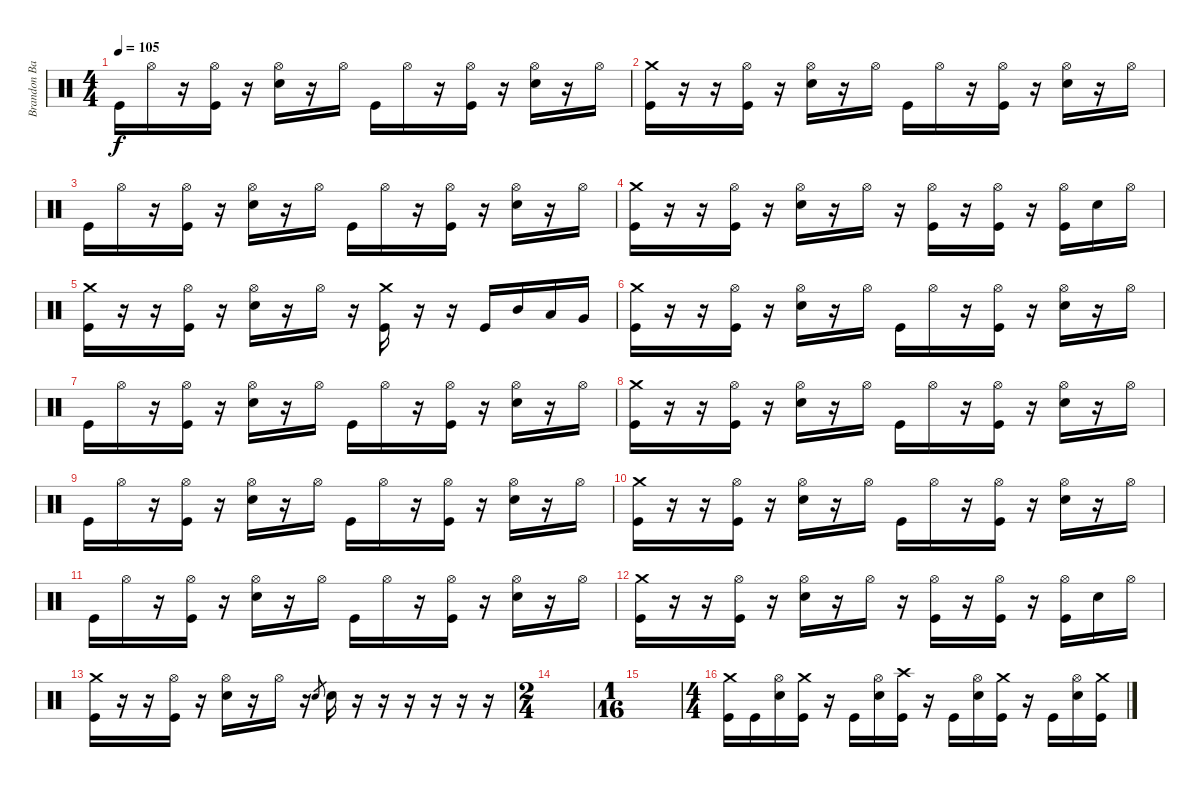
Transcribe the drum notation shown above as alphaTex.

\track ("Brandon Barnes" "Brandon Ba") {instrument percussion}
\staff {score}
\articulation defaults
\ts (4 4)
\tempo 105
\clef neutral
\ks c "Kick (hit)".16{dy f} "Hi-Hat (open)".16
r.16 ("Hi-Hat (open)" "Kick (hit)").16 r.16 ("Hi-Hat (open)" "Electric Snare (hit)").16 r.16 "Hi-Hat (open)".16 "Kick (hit)".16 "Hi-Hat (open)".16 r.16 ("Hi-Hat (open)" "Kick (hit)").16 r.16 ("Hi-Hat (open)" "Electric Snare (hit)").16 r.16 "Hi-Hat (open)".16 |
("Crash medium (hit)" "Kick (hit)").16 r.16 r.16 ("Hi-Hat (open)" "Kick (hit)").16 r.16 ("Hi-Hat (open)" "Electric Snare (hit)").16 r.16 "Hi-Hat (open)".16 "Kick (hit)".16 "Hi-Hat (open)".16 r.16 ("Hi-Hat (open)" "Kick (hit)").16 r.16 ("Hi-Hat (open)" "Electric Snare (hit)").16 r.16 "Hi-Hat (open)".16 |
"Kick (hit)".16 "Hi-Hat (open)".16 r.16 ("Hi-Hat (open)" "Kick (hit)").16 r.16 ("Hi-Hat (open)" "Electric Snare (hit)").16 r.16 "Hi-Hat (open)".16 "Kick (hit)".16 "Hi-Hat (open)".16 r.16 ("Hi-Hat (open)" "Kick (hit)").16 r.16 ("Hi-Hat (open)" "Electric Snare (hit)").16 r.16 "Hi-Hat (open)".16 |
("Crash medium (hit)" "Kick (hit)").16 r.16 r.16 ("Hi-Hat (open)" "Kick (hit)").16 r.16 ("Hi-Hat (open)" "Electric Snare (hit)").16 r.16 "Hi-Hat (open)".16 r.16 ("Hi-Hat (open)" "Kick (hit)").16 r.16 ("Hi-Hat (open)" "Kick (hit)").16 r.16 ("Hi-Hat (open)" "Kick (hit)").16 "Electric Snare (hit)".16 "Hi-Hat (open)".16 |
("Crash medium (hit)" "Kick (hit)").16 r.16 r.16 ("Hi-Hat (open)" "Kick (hit)").16 r.16 ("Hi-Hat (open)" "Electric Snare (hit)").16 r.16 "Hi-Hat (open)".16 r.16 ("Crash medium (hit)" "Kick (hit)").16 r.16 r.16 "Kick (hit)".16 "Mid Tom (hit)".16 "Low Tom (hit)".16 "Very Low Tom (hit)".16 |
("Crash medium (hit)" "Kick (hit)").16 r.16 r.16 ("Hi-Hat (open)" "Kick (hit)").16 r.16 ("Hi-Hat (open)" "Electric Snare (hit)").16 r.16 "Hi-Hat (open)".16 "Kick (hit)".16 "Hi-Hat (open)".16 r.16 ("Hi-Hat (open)" "Kick (hit)").16 r.16 ("Hi-Hat (open)" "Electric Snare (hit)").16 r.16 "Hi-Hat (open)".16 |
"Kick (hit)".16 "Hi-Hat (open)".16 r.16 ("Hi-Hat (open)" "Kick (hit)").16 r.16 ("Hi-Hat (open)" "Electric Snare (hit)").16 r.16 "Hi-Hat (open)".16 "Kick (hit)".16 "Hi-Hat (open)".16 r.16 ("Hi-Hat (open)" "Kick (hit)").16 r.16 ("Hi-Hat (open)" "Electric Snare (hit)").16 r.16 "Hi-Hat (open)".16 |
("Crash medium (hit)" "Kick (hit)").16 r.16 r.16 ("Hi-Hat (open)" "Kick (hit)").16 r.16 ("Hi-Hat (open)" "Electric Snare (hit)").16 r.16 "Hi-Hat (open)".16 "Kick (hit)".16 "Hi-Hat (open)".16 r.16 ("Hi-Hat (open)" "Kick (hit)").16 r.16 ("Hi-Hat (open)" "Electric Snare (hit)").16 r.16 "Hi-Hat (open)".16 |
"Kick (hit)".16 "Hi-Hat (open)".16 r.16 ("Hi-Hat (open)" "Kick (hit)").16 r.16 ("Hi-Hat (open)" "Electric Snare (hit)").16 r.16 "Hi-Hat (open)".16 "Kick (hit)".16 "Hi-Hat (open)".16 r.16 ("Hi-Hat (open)" "Kick (hit)").16 r.16 ("Hi-Hat (open)" "Electric Snare (hit)").16 r.16 "Hi-Hat (open)".16 |
("Crash medium (hit)" "Kick (hit)").16 r.16 r.16 ("Hi-Hat (open)" "Kick (hit)").16 r.16 ("Hi-Hat (open)" "Electric Snare (hit)").16 r.16 "Hi-Hat (open)".16 "Kick (hit)".16 "Hi-Hat (open)".16 r.16 ("Hi-Hat (open)" "Kick (hit)").16 r.16 ("Hi-Hat (open)" "Electric Snare (hit)").16 r.16 "Hi-Hat (open)".16 |
"Kick (hit)".16 "Hi-Hat (open)".16 r.16 ("Hi-Hat (open)" "Kick (hit)").16 r.16 ("Hi-Hat (open)" "Electric Snare (hit)").16 r.16 "Hi-Hat (open)".16 "Kick (hit)".16 "Hi-Hat (open)".16 r.16 ("Hi-Hat (open)" "Kick (hit)").16 r.16 ("Hi-Hat (open)" "Electric Snare (hit)").16 r.16 "Hi-Hat (open)".16 |
("Crash medium (hit)" "Kick (hit)").16 r.16 r.16 ("Hi-Hat (open)" "Kick (hit)").16 r.16 ("Hi-Hat (open)" "Electric Snare (hit)").16 r.16 "Hi-Hat (open)".16 r.16 ("Hi-Hat (open)" "Kick (hit)").16 r.16 ("Hi-Hat (open)" "Kick (hit)").16 r.16 ("Hi-Hat (open)" "Kick (hit)").16 "Electric Snare (hit)".16 "Hi-Hat (open)".16 |
("Crash medium (hit)" "Kick (hit)").16 r.16 r.16 ("Hi-Hat (open)" "Kick (hit)").16 r.16 ("Hi-Hat (open)" "Electric Snare (hit)").16 r.16 "Hi-Hat (open)".16 r.16 "Electric Snare (hit)".8{gr} "Electric Snare (hit)".16 r.16 r.16 r.16 r.16 r.16 r.16 |
\ts (2 4)
|
\ts (1 16)
|
\ts (4 4)
("Crash medium (hit)" "Kick (hit)").16 "Kick (hit)".16 ("Hi-Hat (open)" "Electric Snare (hit)").16 ("Crash medium (hit)" "Kick (hit)").16 r.16 "Kick (hit)".16 ("Hi-Hat (open)" "Electric Snare (hit)").16 ("Crash high (hit)" "Kick (hit)").16 r.16 "Kick (hit)".16 ("Hi-Hat (open)" "Electric Snare (hit)").16 ("Crash medium (hit)" "Kick (hit)").16 r.16 "Kick (hit)".16 ("Hi-Hat (open)" "Electric Snare (hit)").16 ("Crash medium (hit)" "Kick (hit)").16
